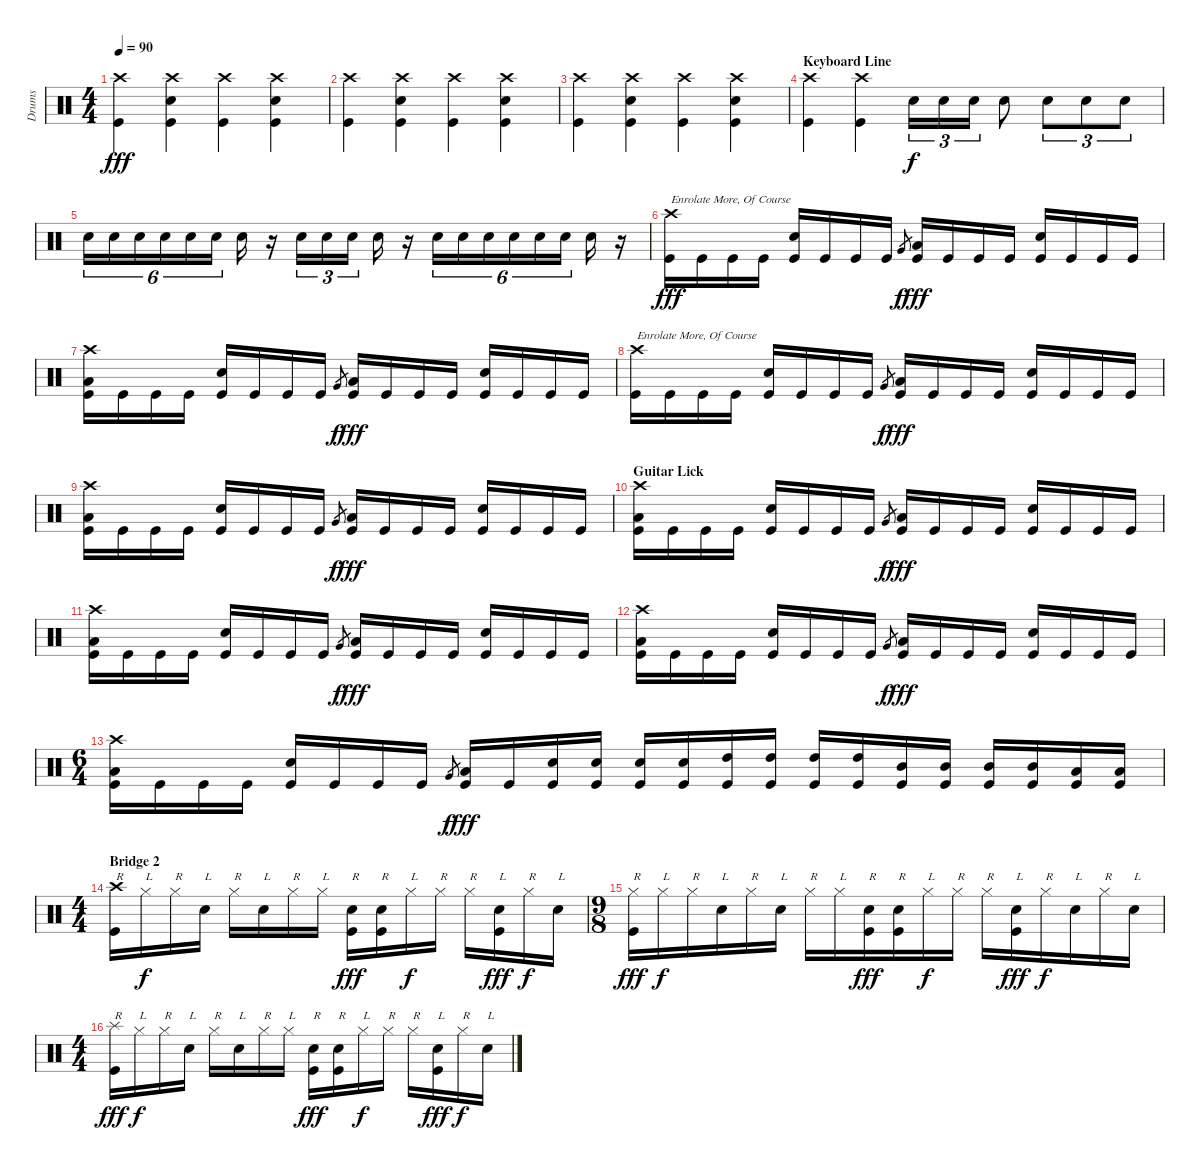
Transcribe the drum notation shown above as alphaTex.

\track ("Drums" "Drums") {instrument percussion}
\staff {score}
\articulation defaults
\ts (4 4)
\tempo 90
\clef neutral
\ks c
("Crash high (hit)" "Kick (hit)").4{dy fff} ("Crash high (hit)" "Electric Snare (hit)" "Kick (hit)").4 ("Crash high (hit)" "Kick (hit)").4 ("Crash high (hit)" "Electric Snare (hit)" "Kick (hit)").4 |
("Crash high (hit)" "Kick (hit)").4 ("Crash high (hit)" "Electric Snare (hit)" "Kick (hit)").4 ("Crash high (hit)" "Kick (hit)").4 ("Crash high (hit)" "Electric Snare (hit)" "Kick (hit)").4 |
("Crash high (hit)" "Kick (hit)").4 ("Crash high (hit)" "Electric Snare (hit)" "Kick (hit)").4 ("Crash high (hit)" "Kick (hit)").4 ("Crash high (hit)" "Electric Snare (hit)" "Kick (hit)").4 |
\section ("" "Keyboard Line")
("Crash high (hit)" "Kick (hit)").4 ("Crash high (hit)" "Kick (hit)").4 "Electric Snare (hit)".16{tu (3 2) dy f} "Electric Snare (hit)".16{tu (3 2)} "Electric Snare (hit)".16{tu (3 2)} "Electric Snare (hit)".8 "Electric Snare (hit)".8{tu (3 2)} "Electric Snare (hit)".8{tu (3 2)} "Electric Snare (hit)".8{tu (3 2)} |
"Electric Snare (hit)".16{tu (6 4)} "Electric Snare (hit)".16{tu (6 4)} "Electric Snare (hit)".16{tu (6 4)} "Electric Snare (hit)".16{tu (6 4)} "Electric Snare (hit)".16{tu (6 4)} "Electric Snare (hit)".16{tu (6 4)} "Electric Snare (hit)".16 r.16 "Electric Snare (hit)".16{tu (3 2)} "Electric Snare (hit)".16{tu (3 2)} "Electric Snare (hit)".16{tu (3 2)} "Electric Snare (hit)".16 r.16 "Electric Snare (hit)".16{tu (6 4)} "Electric Snare (hit)".16{tu (6 4)} "Electric Snare (hit)".16{tu (6 4)} "Electric Snare (hit)".16{tu (6 4)} "Electric Snare (hit)".16{tu (6 4)} "Electric Snare (hit)".16{tu (6 4)} "Electric Snare (hit)".16 r.16 |
("Crash high (hit)" "Kick (hit)").16{txt "Enrolate More, Of Course" dy fff} "Kick (hit)".16 "Kick (hit)".16 "Kick (hit)".16 ("Electric Snare (hit)" "Kick (hit)").16 "Kick (hit)".16 "Kick (hit)".16 "Kick (hit)".16 "Very Low Tom (hit)".8{gr dy f} ("Low Tom (hit)" "Kick (hit)").16{dy fff} "Kick (hit)".16 "Kick (hit)".16 "Kick (hit)".16 ("Electric Snare (hit)" "Kick (hit)").16 "Kick (hit)".16 "Kick (hit)".16 "Kick (hit)".16 |
("Crash high (hit)" "Low Tom (hit)" "Kick (hit)").16 "Kick (hit)".16 "Kick (hit)".16 "Kick (hit)".16 ("Electric Snare (hit)" "Kick (hit)").16 "Kick (hit)".16 "Kick (hit)".16 "Kick (hit)".16 "Very Low Tom (hit)".8{gr dy f} ("Low Tom (hit)" "Kick (hit)").16{dy fff} "Kick (hit)".16 "Kick (hit)".16 "Kick (hit)".16 ("Electric Snare (hit)" "Kick (hit)").16 "Kick (hit)".16 "Kick (hit)".16 "Kick (hit)".16 |
("Crash high (hit)" "Kick (hit)").16{txt "Enrolate More, Of Course"} "Kick (hit)".16 "Kick (hit)".16 "Kick (hit)".16 ("Electric Snare (hit)" "Kick (hit)").16 "Kick (hit)".16 "Kick (hit)".16 "Kick (hit)".16 "Very Low Tom (hit)".8{gr dy f} ("Low Tom (hit)" "Kick (hit)").16{dy fff} "Kick (hit)".16 "Kick (hit)".16 "Kick (hit)".16 ("Electric Snare (hit)" "Kick (hit)").16 "Kick (hit)".16 "Kick (hit)".16 "Kick (hit)".16 |
("Crash high (hit)" "Low Tom (hit)" "Kick (hit)").16 "Kick (hit)".16 "Kick (hit)".16 "Kick (hit)".16 ("Electric Snare (hit)" "Kick (hit)").16 "Kick (hit)".16 "Kick (hit)".16 "Kick (hit)".16 "Very Low Tom (hit)".8{gr dy f} ("Low Tom (hit)" "Kick (hit)").16{dy fff} "Kick (hit)".16 "Kick (hit)".16 "Kick (hit)".16 ("Electric Snare (hit)" "Kick (hit)").16 "Kick (hit)".16 "Kick (hit)".16 "Kick (hit)".16 |
\section ("" "Guitar Lick")
("Crash high (hit)" "Low Tom (hit)" "Kick (hit)").16 "Kick (hit)".16 "Kick (hit)".16 "Kick (hit)".16 ("Electric Snare (hit)" "Kick (hit)").16 "Kick (hit)".16 "Kick (hit)".16 "Kick (hit)".16 "Very Low Tom (hit)".8{gr dy f} ("Low Tom (hit)" "Kick (hit)").16{dy fff} "Kick (hit)".16 "Kick (hit)".16 "Kick (hit)".16 ("Electric Snare (hit)" "Kick (hit)").16 "Kick (hit)".16 "Kick (hit)".16 "Kick (hit)".16 |
("Crash high (hit)" "Low Tom (hit)" "Kick (hit)").16 "Kick (hit)".16 "Kick (hit)".16 "Kick (hit)".16 ("Electric Snare (hit)" "Kick (hit)").16 "Kick (hit)".16 "Kick (hit)".16 "Kick (hit)".16 "Very Low Tom (hit)".8{gr dy f} ("Low Tom (hit)" "Kick (hit)").16{dy fff} "Kick (hit)".16 "Kick (hit)".16 "Kick (hit)".16 ("Electric Snare (hit)" "Kick (hit)").16 "Kick (hit)".16 "Kick (hit)".16 "Kick (hit)".16 |
("Crash high (hit)" "Low Tom (hit)" "Kick (hit)").16 "Kick (hit)".16 "Kick (hit)".16 "Kick (hit)".16 ("Electric Snare (hit)" "Kick (hit)").16 "Kick (hit)".16 "Kick (hit)".16 "Kick (hit)".16 "Very Low Tom (hit)".8{gr dy f} ("Low Tom (hit)" "Kick (hit)").16{dy fff} "Kick (hit)".16 "Kick (hit)".16 "Kick (hit)".16 ("Electric Snare (hit)" "Kick (hit)").16 "Kick (hit)".16 "Kick (hit)".16 "Kick (hit)".16 |
\ts (6 4)
("Crash high (hit)" "Low Tom (hit)" "Kick (hit)").16 "Kick (hit)".16 "Kick (hit)".16 "Kick (hit)".16 ("Electric Snare (hit)" "Kick (hit)").16 "Kick (hit)".16 "Kick (hit)".16 "Kick (hit)".16 "Very Low Tom (hit)".8{gr dy f} ("Low Tom (hit)" "Kick (hit)").16{dy fff} "Kick (hit)".16 ("Electric Snare (hit)" "Kick (hit)").16 ("Electric Snare (hit)" "Kick (hit)").16 ("Electric Snare (hit)" "Kick (hit)").16 ("Electric Snare (hit)" "Kick (hit)").16 ("High Tom (hit)" "Kick (hit)").16 ("High Tom (hit)" "Kick (hit)").16 ("High Tom (hit)" "Kick (hit)").16 ("High Tom (hit)" "Kick (hit)").16 ("Mid Tom (hit)" "Kick (hit)").16 ("Mid Tom (hit)" "Kick (hit)").16 ("Mid Tom (hit)" "Kick (hit)").16 ("Mid Tom (hit)" "Kick (hit)").16 ("Low Tom (hit)" "Kick (hit)").16 ("Low Tom (hit)" "Kick (hit)").16 |
\ts (4 4)
\section ("" "Bridge 2")
("Crash high (hit)" "Kick (hit)").16{txt "R"} "Hi-Hat (closed)".16{txt "L" dy f} "Hi-Hat (closed)".16{txt "R"} "Electric Snare (hit)".16{txt "L"} "Hi-Hat (closed)".16{txt "R"} "Electric Snare (hit)".16{txt "L"} "Hi-Hat (closed)".16{txt "R"} "Hi-Hat (closed)".16{txt "L"} ("Electric Snare (hit)" "Kick (hit)").16{txt "R" dy fff} ("Electric Snare (hit)" "Kick (hit)").16{txt "R"} "Hi-Hat (closed)".16{txt "L" dy f} "Hi-Hat (closed)".16{txt "R"} "Hi-Hat (closed)".16{txt "R"} ("Electric Snare (hit)" "Kick (hit)").16{txt "L" dy fff} "Hi-Hat (closed)".16{txt "R" dy f} "Electric Snare (hit)".16{txt "L"} |
\ts (9 8)
("Hi-Hat (closed)" "Kick (hit)").16{txt "R" dy fff} "Hi-Hat (closed)".16{txt "L" dy f} "Hi-Hat (closed)".16{txt "R"} "Electric Snare (hit)".16{txt "L"} "Hi-Hat (closed)".16{txt "R"} "Electric Snare (hit)".16{txt "L"} "Hi-Hat (closed)".16{txt "R"} "Hi-Hat (closed)".16{txt "L"} ("Electric Snare (hit)" "Kick (hit)").16{txt "R" dy fff} ("Electric Snare (hit)" "Kick (hit)").16{txt "R"} "Hi-Hat (closed)".16{txt "L" dy f} "Hi-Hat (closed)".16{txt "R"} "Hi-Hat (closed)".16{txt "R"} ("Electric Snare (hit)" "Kick (hit)").16{txt "L" dy fff} "Hi-Hat (closed)".16{txt "R" dy f} "Electric Snare (hit)".16{txt "L"} "Hi-Hat (closed)".16{txt "R"} "Electric Snare (hit)".16{txt "L"} |
\ts (4 4)
("Splash (hit)" "Kick (hit)").16{txt "R" dy fff} "Hi-Hat (closed)".16{txt "L" dy f} "Hi-Hat (closed)".16{txt "R"} "Electric Snare (hit)".16{txt "L"} "Hi-Hat (closed)".16{txt "R"} "Electric Snare (hit)".16{txt "L"} "Hi-Hat (closed)".16{txt "R"} "Hi-Hat (closed)".16{txt "L"} ("Electric Snare (hit)" "Kick (hit)").16{txt "R" dy fff} ("Electric Snare (hit)" "Kick (hit)").16{txt "R"} "Hi-Hat (closed)".16{txt "L" dy f} "Hi-Hat (closed)".16{txt "R"} "Hi-Hat (closed)".16{txt "R"} ("Electric Snare (hit)" "Kick (hit)").16{txt "L" dy fff} "Hi-Hat (closed)".16{txt "R" dy f} "Electric Snare (hit)".16{txt "L"}
